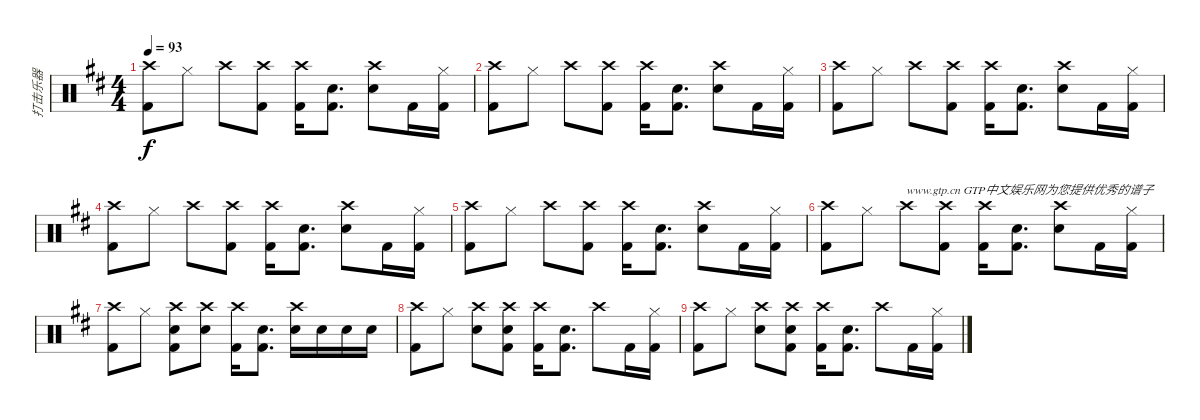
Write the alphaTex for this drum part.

\track ("打击乐器" "打击乐器") {instrument percussion}
\staff {score}
\articulation defaults
\ts (4 4)
\tempo 93
\clef neutral
\ks d
("Crash high (hit)" "Kick (hit) 2").8{dy f} "Hi-Hat (closed)".8 "Crash high (hit)".8 ("Crash high (hit)" "Kick (hit) 2").8 ("Crash high (hit)" "Kick (hit) 2").16 ("Snare (hit) 2" "Kick (hit) 2").8{d} ("Crash high (hit)" "Snare (hit) 2").8 "Kick (hit) 2".16 ("Hi-Hat (closed)" "Kick (hit) 2").16 |
("Crash high (hit)" "Kick (hit) 2").8 "Hi-Hat (closed)".8 "Crash high (hit)".8 ("Crash high (hit)" "Kick (hit) 2").8 ("Crash high (hit)" "Kick (hit) 2").16 ("Snare (hit) 2" "Kick (hit) 2").8{d} ("Crash high (hit)" "Snare (hit) 2").8 "Kick (hit) 2".16 ("Hi-Hat (closed)" "Kick (hit) 2").16 |
("Crash high (hit)" "Kick (hit) 2").8 "Hi-Hat (closed)".8 "Crash high (hit)".8 ("Crash high (hit)" "Kick (hit) 2").8 ("Crash high (hit)" "Kick (hit) 2").16 ("Snare (hit) 2" "Kick (hit) 2").8{d} ("Crash high (hit)" "Snare (hit) 2").8 "Kick (hit) 2".16 ("Hi-Hat (closed)" "Kick (hit) 2").16 |
("Crash high (hit)" "Kick (hit) 2").8 "Hi-Hat (closed)".8 "Crash high (hit)".8 ("Crash high (hit)" "Kick (hit) 2").8 ("Crash high (hit)" "Kick (hit) 2").16 ("Snare (hit) 2" "Kick (hit) 2").8{d} ("Crash high (hit)" "Snare (hit) 2").8 "Kick (hit) 2".16 ("Hi-Hat (closed)" "Kick (hit) 2").16 |
("Crash high (hit)" "Kick (hit) 2").8 "Hi-Hat (closed)".8 "Crash high (hit)".8 ("Crash high (hit)" "Kick (hit) 2").8 ("Crash high (hit)" "Kick (hit) 2").16 ("Snare (hit) 2" "Kick (hit) 2").8{d} ("Crash high (hit)" "Snare (hit) 2").8 "Kick (hit) 2".16 ("Hi-Hat (closed)" "Kick (hit) 2").16 |
("Crash high (hit)" "Kick (hit) 2").8 "Hi-Hat (closed)".8 "Crash high (hit)".8{txt "www.gtp.cn GTP中文娱乐网为您提供优秀的谱子"} ("Crash high (hit)" "Kick (hit) 2").8 ("Crash high (hit)" "Kick (hit) 2").16 ("Snare (hit) 2" "Kick (hit) 2").8{d} ("Crash high (hit)" "Snare (hit) 2").8 "Kick (hit) 2".16 ("Hi-Hat (closed)" "Kick (hit) 2").16 |
("Crash high (hit)" "Kick (hit) 2").8 "Hi-Hat (closed)".8 ("Crash high (hit)" "Snare (hit) 2" "Kick (hit) 2").8 ("Crash high (hit)" "Snare (hit) 2").8 ("Crash high (hit)" "Kick (hit) 2").16 ("Snare (hit) 2" "Kick (hit) 2").8{d} ("Crash high (hit)" "Snare (hit) 2").16 "Snare (hit) 2".16 "Snare (hit) 2".16 "Snare (hit) 2".16 |
("Crash high (hit)" "Kick (hit) 2").8 "Hi-Hat (closed)".8 ("Crash high (hit)" "Snare (hit) 2").8 ("Crash high (hit)" "Snare (hit) 2" "Kick (hit) 2").8 ("Crash high (hit)" "Kick (hit) 2").16 ("Snare (hit) 2" "Kick (hit) 2").8{d} "Crash high (hit)".8 "Kick (hit) 2".16 ("Hi-Hat (closed)" "Kick (hit) 2").16 |
("Crash high (hit)" "Kick (hit) 2").8 "Hi-Hat (closed)".8 ("Crash high (hit)" "Snare (hit) 2").8 ("Crash high (hit)" "Snare (hit) 2" "Kick (hit) 2").8 ("Crash high (hit)" "Kick (hit) 2").16 ("Snare (hit) 2" "Kick (hit) 2").8{d} "Crash high (hit)".8 "Kick (hit) 2".16 ("Hi-Hat (closed)" "Kick (hit) 2").16
